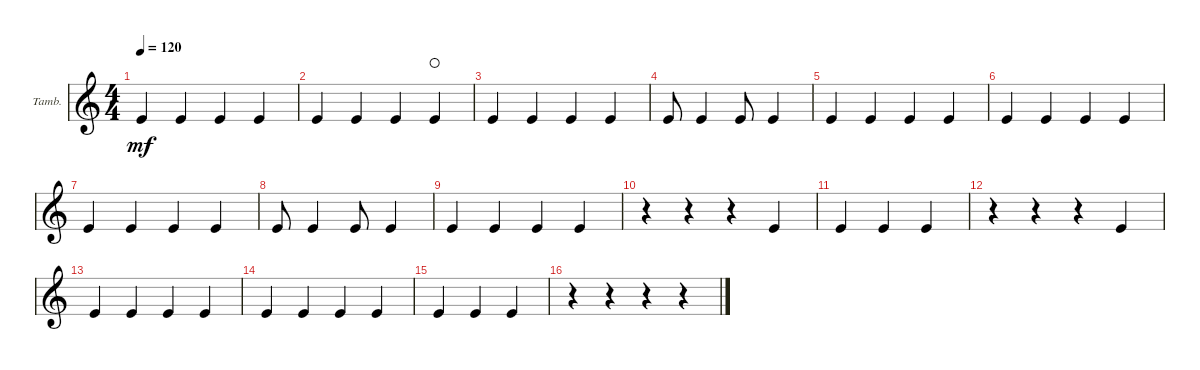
\defaultSystemsLayout 4
\bracketExtendMode groupsimilarinstruments
\firstSystemTrackNameOrientation horizontal
\otherSystemsTrackNameOrientation horizontal
\track ("Tambourine" "Tamb.") {instrument percussion}
\staff {score}
\articulation defaults
\ts (4 4)
\tempo 120
\clef g2
\scale
0.474178
\ks c "Kick (hit)".4{dy mf} "Kick (hit)".4 "Kick (hit)".4 "Kick (hit)".4
|
\scale
0.262911 "Kick (hit)".4 "Kick (hit)".4 "Kick (hit)".4 "Kick (hit)".4{waho} |
\scale
0.262911 "Kick (hit)".4 "Kick (hit)".4 "Kick (hit)".4 "Kick (hit)".4 |
\scale
0.296296 "Kick (hit)".8 "Kick (hit)".4 "Kick (hit)".8 "Kick (hit)".4 |
\scale
0.296296 "Kick (hit)".4 "Kick (hit)".4 "Kick (hit)".4 "Kick (hit)".4 |
\scale
0.407407
\ks aminor "Kick (hit)".4 "Kick (hit)".4 "Kick (hit)".4 "Kick (hit)".4
|
\scale
0.333333 "Kick (hit)".4 "Kick (hit)".4 "Kick (hit)".4 "Kick (hit)".4 |
\scale
0.333333 "Kick (hit)".8 "Kick (hit)".4 "Kick (hit)".8 "Kick (hit)".4 |
\scale
0.333333 "Kick (hit)".4 "Kick (hit)".4 "Kick (hit)".4 "Kick (hit)".4 |
\scale
0.333333 r.4 r.4 r.4 "Kick (hit)".4 |
\scale
0.333333 "Kick (hit)".4 "Kick (hit)".4 "Kick (hit)".4 |
\scale
0.333333 r.4 r.4 r.4 "Kick (hit)".4 |
\scale
0.333333 "Kick (hit)".4 "Kick (hit)".4 "Kick (hit)".4 "Kick (hit)".4 |
\scale
0.333333 "Kick (hit)".4 "Kick (hit)".4 "Kick (hit)".4 "Kick (hit)".4 |
\scale
0.333333 "Kick (hit)".4 "Kick (hit)".4 "Kick (hit)".4 |
\scale
0.333333 r.4 r.4 r.4 r.4
